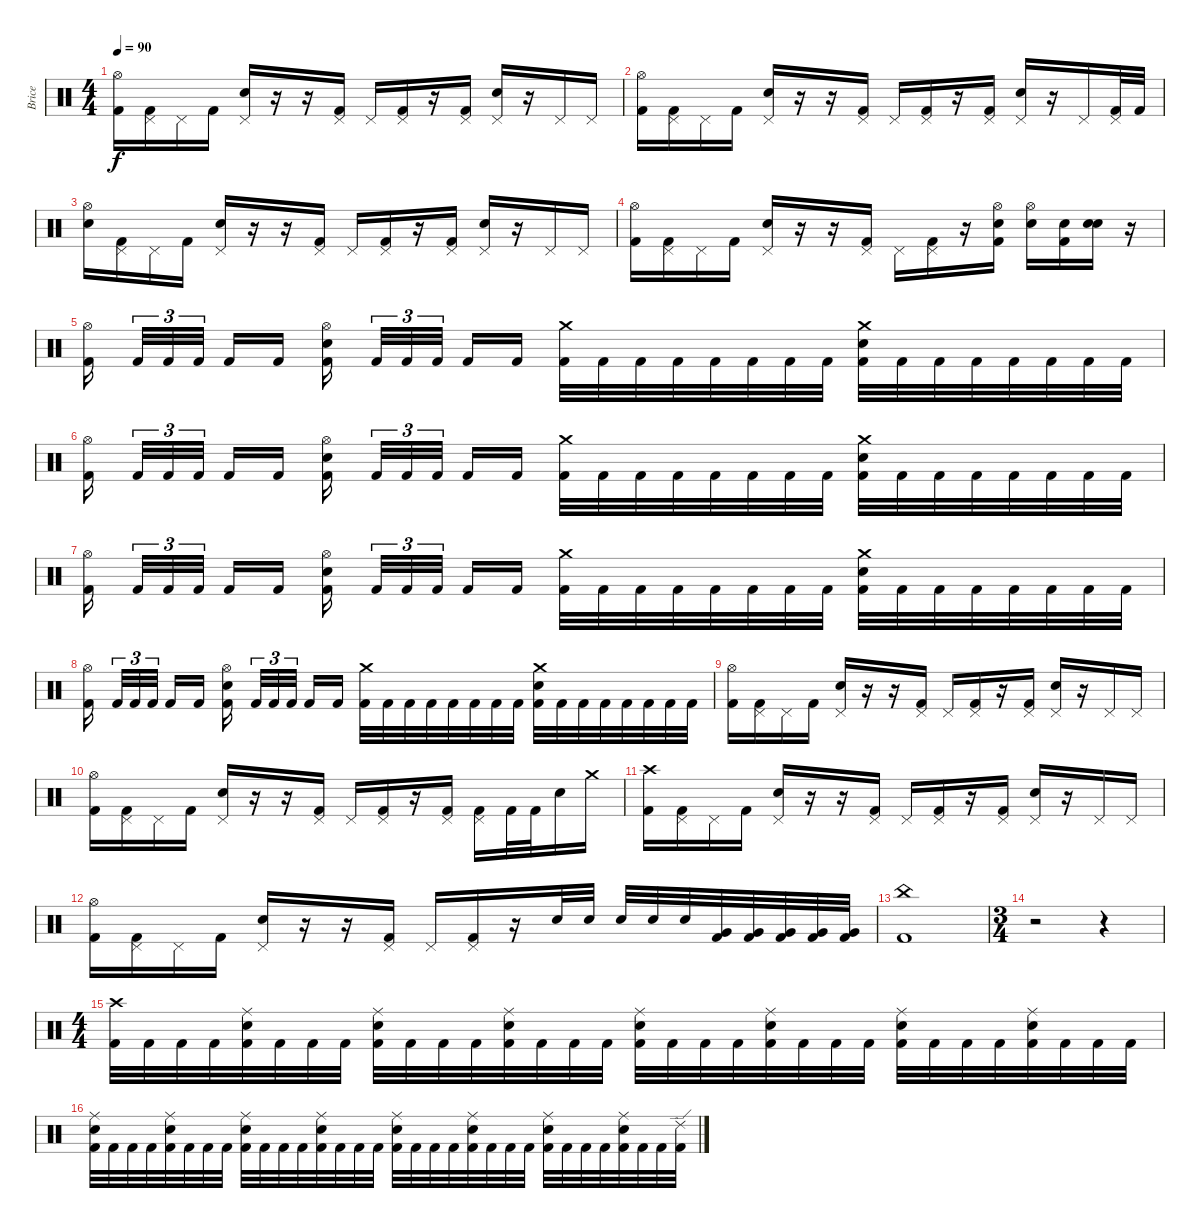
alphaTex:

\track ("Brice" "Brice") {instrument percussion}
\staff {score}
\articulation defaults
\ts (4 4)
\tempo 90
\clef neutral
\ks c
("Hi-Hat (open)" "Kick (hit) 2").16{dy f} ("Pedal Hi-Hat (hit)" "Kick (hit) 2").16 "Pedal Hi-Hat (hit)".16 "Kick (hit) 2".16 ("Pedal Hi-Hat (hit)" "Electric Snare (hit)").16 r.16 r.16 ("Pedal Hi-Hat (hit)" "Kick (hit) 2").16 "Pedal Hi-Hat (hit)".16 ("Pedal Hi-Hat (hit)" "Kick (hit) 2").16 r.16 ("Pedal Hi-Hat (hit)" "Kick (hit) 2").16 ("Pedal Hi-Hat (hit)" "Electric Snare (hit)").16 r.16 "Pedal Hi-Hat (hit)".16 "Pedal Hi-Hat (hit)".16 |
("Hi-Hat (open)" "Kick (hit) 2").16 ("Pedal Hi-Hat (hit)" "Kick (hit) 2").16 "Pedal Hi-Hat (hit)".16 "Kick (hit) 2".16 ("Pedal Hi-Hat (hit)" "Electric Snare (hit)").16 r.16 r.16 ("Pedal Hi-Hat (hit)" "Kick (hit) 2").16 "Pedal Hi-Hat (hit)".16 ("Pedal Hi-Hat (hit)" "Kick (hit) 2").16 r.16 ("Pedal Hi-Hat (hit)" "Kick (hit) 2").16 ("Pedal Hi-Hat (hit)" "Electric Snare (hit)").16 r.16 "Pedal Hi-Hat (hit)".16 ("Pedal Hi-Hat (hit)" "Kick (hit) 2").32 "Kick (hit) 2".32 |
("Hi-Hat (open)" "Electric Snare (hit)").16 ("Pedal Hi-Hat (hit)" "Kick (hit) 2").16 "Pedal Hi-Hat (hit)".16 "Kick (hit) 2".16 ("Pedal Hi-Hat (hit)" "Electric Snare (hit)").16 r.16 r.16 ("Pedal Hi-Hat (hit)" "Kick (hit) 2").16 "Pedal Hi-Hat (hit)".16 ("Pedal Hi-Hat (hit)" "Kick (hit) 2").16 r.16 ("Pedal Hi-Hat (hit)" "Kick (hit) 2").16 ("Pedal Hi-Hat (hit)" "Electric Snare (hit)").16 r.16 "Pedal Hi-Hat (hit)".16 "Pedal Hi-Hat (hit)".16 |
("Hi-Hat (open)" "Kick (hit) 2").16 ("Pedal Hi-Hat (hit)" "Kick (hit) 2").16 "Pedal Hi-Hat (hit)".16 "Kick (hit) 2".16 ("Pedal Hi-Hat (hit)" "Electric Snare (hit)").16 r.16 r.16 ("Pedal Hi-Hat (hit)" "Kick (hit) 2").16 "Pedal Hi-Hat (hit)".16 ("Pedal Hi-Hat (hit)" "Kick (hit) 2").16 r.16 ("Hi-Hat (open)" "Electric Snare (hit)" "Kick (hit) 2").16 ("Hi-Hat (open)" "Electric Snare (hit)").16 ("Electric Snare (hit)" "Kick (hit) 2").16 ("Electric Snare (hit)" "Electric Snare (hit)").16{bd 480} r.16 |
("Hi-Hat (open)" "Kick (hit) 2").16 "Kick (hit) 2".32{tu (3 2)} "Kick (hit) 2".32{tu (3 2)} "Kick (hit) 2".32{tu (3 2)} "Kick (hit) 2".16 "Kick (hit) 2".16 ("Hi-Hat (open)" "Electric Snare (hit)" "Kick (hit) 2").16 "Kick (hit) 2".32{tu (3 2)} "Kick (hit) 2".32{tu (3 2)} "Kick (hit) 2".32{tu (3 2)} "Kick (hit) 2".16 "Kick (hit) 2".16 ("Crash medium (hit)" "Kick (hit) 2").32 "Kick (hit) 2".32 "Kick (hit) 2".32 "Kick (hit) 2".32 "Kick (hit) 2".32 "Kick (hit) 2".32 "Kick (hit) 2".32 "Kick (hit) 2".32 ("Crash medium (hit)" "Electric Snare (hit)" "Kick (hit) 2").32 "Kick (hit) 2".32 "Kick (hit) 2".32 "Kick (hit) 2".32 "Kick (hit) 2".32 "Kick (hit) 2".32 "Kick (hit) 2".32 "Kick (hit) 2".32 |
("Hi-Hat (open)" "Kick (hit) 2").16 "Kick (hit) 2".32{tu (3 2)} "Kick (hit) 2".32{tu (3 2)} "Kick (hit) 2".32{tu (3 2)} "Kick (hit) 2".16 "Kick (hit) 2".16 ("Hi-Hat (open)" "Electric Snare (hit)" "Kick (hit) 2").16 "Kick (hit) 2".32{tu (3 2)} "Kick (hit) 2".32{tu (3 2)} "Kick (hit) 2".32{tu (3 2)} "Kick (hit) 2".16 "Kick (hit) 2".16 ("Crash medium (hit)" "Kick (hit) 2").32 "Kick (hit) 2".32 "Kick (hit) 2".32 "Kick (hit) 2".32 "Kick (hit) 2".32 "Kick (hit) 2".32 "Kick (hit) 2".32 "Kick (hit) 2".32 ("Crash medium (hit)" "Electric Snare (hit)" "Kick (hit) 2").32 "Kick (hit) 2".32 "Kick (hit) 2".32 "Kick (hit) 2".32 "Kick (hit) 2".32 "Kick (hit) 2".32 "Kick (hit) 2".32 "Kick (hit) 2".32 |
("Hi-Hat (open)" "Kick (hit) 2").16 "Kick (hit) 2".32{tu (3 2)} "Kick (hit) 2".32{tu (3 2)} "Kick (hit) 2".32{tu (3 2)} "Kick (hit) 2".16 "Kick (hit) 2".16 ("Hi-Hat (open)" "Electric Snare (hit)" "Kick (hit) 2").16 "Kick (hit) 2".32{tu (3 2)} "Kick (hit) 2".32{tu (3 2)} "Kick (hit) 2".32{tu (3 2)} "Kick (hit) 2".16 "Kick (hit) 2".16 ("Crash medium (hit)" "Kick (hit) 2").32 "Kick (hit) 2".32 "Kick (hit) 2".32 "Kick (hit) 2".32 "Kick (hit) 2".32 "Kick (hit) 2".32 "Kick (hit) 2".32 "Kick (hit) 2".32 ("Crash medium (hit)" "Electric Snare (hit)" "Kick (hit) 2").32 "Kick (hit) 2".32 "Kick (hit) 2".32 "Kick (hit) 2".32 "Kick (hit) 2".32 "Kick (hit) 2".32 "Kick (hit) 2".32 "Kick (hit) 2".32 |
("Hi-Hat (open)" "Kick (hit) 2").16 "Kick (hit) 2".32{tu (3 2)} "Kick (hit) 2".32{tu (3 2)} "Kick (hit) 2".32{tu (3 2)} "Kick (hit) 2".16 "Kick (hit) 2".16 ("Hi-Hat (open)" "Electric Snare (hit)" "Kick (hit) 2").16 "Kick (hit) 2".32{tu (3 2)} "Kick (hit) 2".32{tu (3 2)} "Kick (hit) 2".32{tu (3 2)} "Kick (hit) 2".16 "Kick (hit) 2".16 ("Crash medium (hit)" "Kick (hit) 2").32 "Kick (hit) 2".32 "Kick (hit) 2".32 "Kick (hit) 2".32 "Kick (hit) 2".32 "Kick (hit) 2".32 "Kick (hit) 2".32 "Kick (hit) 2".32 ("Crash medium (hit)" "Electric Snare (hit)" "Kick (hit) 2").32 "Kick (hit) 2".32 "Kick (hit) 2".32 "Kick (hit) 2".32 "Kick (hit) 2".32 "Kick (hit) 2".32 "Kick (hit) 2".32 "Kick (hit) 2".32 |
("Hi-Hat (open)" "Kick (hit) 2").16 ("Pedal Hi-Hat (hit)" "Kick (hit) 2").16 "Pedal Hi-Hat (hit)".16 "Kick (hit) 2".16 ("Pedal Hi-Hat (hit)" "Electric Snare (hit)").16 r.16 r.16 ("Pedal Hi-Hat (hit)" "Kick (hit) 2").16 "Pedal Hi-Hat (hit)".16 ("Pedal Hi-Hat (hit)" "Kick (hit) 2").16 r.16 ("Pedal Hi-Hat (hit)" "Kick (hit) 2").16 ("Pedal Hi-Hat (hit)" "Electric Snare (hit)").16 r.16 "Pedal Hi-Hat (hit)".16 "Pedal Hi-Hat (hit)".16 |
("Hi-Hat (open)" "Kick (hit) 2").16 ("Pedal Hi-Hat (hit)" "Kick (hit) 2").16 "Pedal Hi-Hat (hit)".16 "Kick (hit) 2".16 ("Pedal Hi-Hat (hit)" "Electric Snare (hit)").16 r.16 r.16 ("Pedal Hi-Hat (hit)" "Kick (hit) 2").16 "Pedal Hi-Hat (hit)".16 ("Pedal Hi-Hat (hit)" "Kick (hit) 2").16 r.16 ("Pedal Hi-Hat (hit)" "Kick (hit) 2").16 ("Pedal Hi-Hat (hit)" "Kick (hit) 2").16 "Kick (hit) 2".32 "Kick (hit) 2".32 "Electric Snare (hit)".16 "Crash medium (hit)".16 |
("Crash high (hit)" "Kick (hit) 2").16 ("Pedal Hi-Hat (hit)" "Kick (hit) 2").16 "Pedal Hi-Hat (hit)".16 "Kick (hit) 2".16 ("Pedal Hi-Hat (hit)" "Electric Snare (hit)").16 r.16 r.16 ("Pedal Hi-Hat (hit)" "Kick (hit) 2").16 "Pedal Hi-Hat (hit)".16 ("Pedal Hi-Hat (hit)" "Kick (hit) 2").16 r.16 ("Pedal Hi-Hat (hit)" "Kick (hit) 2").16 ("Pedal Hi-Hat (hit)" "Electric Snare (hit)").16 r.16 "Pedal Hi-Hat (hit)".16 "Pedal Hi-Hat (hit)".16 |
("Hi-Hat (open)" "Kick (hit) 2").16 ("Pedal Hi-Hat (hit)" "Kick (hit) 2").16 "Pedal Hi-Hat (hit)".16 "Kick (hit) 2".16 ("Pedal Hi-Hat (hit)" "Electric Snare (hit)").16 r.16 r.16 ("Pedal Hi-Hat (hit)" "Kick (hit) 2").16 "Pedal Hi-Hat (hit)".16 ("Pedal Hi-Hat (hit)" "Kick (hit) 2").16 r.16 "Electric Snare (hit)".32 "Electric Snare (hit)".32 "Electric Snare (hit)".32 "Electric Snare (hit)".32 "Electric Snare (hit)".32 ("Very Low Tom (hit)" "Kick (hit) 2").32 ("Very Low Tom (hit)" "Kick (hit) 2").32 ("Very Low Tom (hit)" "Kick (hit) 2").32 ("Very Low Tom (hit)" "Kick (hit) 2").32 ("Very Low Tom (hit)" "Kick (hit) 2").32 |
("China (hit)" "Kick (hit) 2").1 |
\ts (3 4)
r.2 r.4 |
\ts (4 4)
("Crash high (hit)" "Kick (hit) 2").32 "Kick (hit) 2".32 "Kick (hit) 2".32 "Kick (hit) 2".32 ("Ride (middle)" "Electric Snare (hit)" "Kick (hit) 2").32 "Kick (hit) 2".32 "Kick (hit) 2".32 "Kick (hit) 2".32 ("Ride (middle)" "Electric Snare (hit)" "Kick (hit) 2").32 "Kick (hit) 2".32 "Kick (hit) 2".32 "Kick (hit) 2".32 ("Ride (middle)" "Electric Snare (hit)" "Kick (hit) 2").32 "Kick (hit) 2".32 "Kick (hit) 2".32 "Kick (hit) 2".32 ("Ride (middle)" "Electric Snare (hit)" "Kick (hit) 2").32 "Kick (hit) 2".32 "Kick (hit) 2".32 "Kick (hit) 2".32 ("Ride (middle)" "Electric Snare (hit)" "Kick (hit) 2").32 "Kick (hit) 2".32 "Kick (hit) 2".32 "Kick (hit) 2".32 ("Ride (middle)" "Electric Snare (hit)" "Kick (hit) 2").32 "Kick (hit) 2".32 "Kick (hit) 2".32 "Kick (hit) 2".32 ("Ride (middle)" "Electric Snare (hit)" "Kick (hit) 2").32 "Kick (hit) 2".32 "Kick (hit) 2".32 "Kick (hit) 2".32 |
("Ride (middle)" "Electric Snare (hit)" "Kick (hit) 2").32 "Kick (hit) 2".32 "Kick (hit) 2".32 "Kick (hit) 2".32 ("Ride (middle)" "Electric Snare (hit)" "Kick (hit) 2").32 "Kick (hit) 2".32 "Kick (hit) 2".32 "Kick (hit) 2".32 ("Ride (middle)" "Electric Snare (hit)" "Kick (hit) 2").32 "Kick (hit) 2".32 "Kick (hit) 2".32 "Kick (hit) 2".32 ("Ride (middle)" "Electric Snare (hit)" "Kick (hit) 2").32 "Kick (hit) 2".32 "Kick (hit) 2".32 "Kick (hit) 2".32 ("Ride (middle)" "Electric Snare (hit)" "Kick (hit) 2").32 "Kick (hit) 2".32 "Kick (hit) 2".32 "Kick (hit) 2".32 ("Ride (middle)" "Electric Snare (hit)" "Kick (hit) 2").32 "Kick (hit) 2".32 "Kick (hit) 2".32 "Kick (hit) 2".32 ("Ride (middle)" "Electric Snare (hit)" "Kick (hit) 2").32 "Kick (hit) 2".32 "Kick (hit) 2".32 "Kick (hit) 2".32 ("Ride (middle)" "Electric Snare (hit)" "Kick (hit) 2").32 "Kick (hit) 2".32 "Kick (hit) 2".32 ("Ride (edge) 2" "Kick (hit) 2").32
